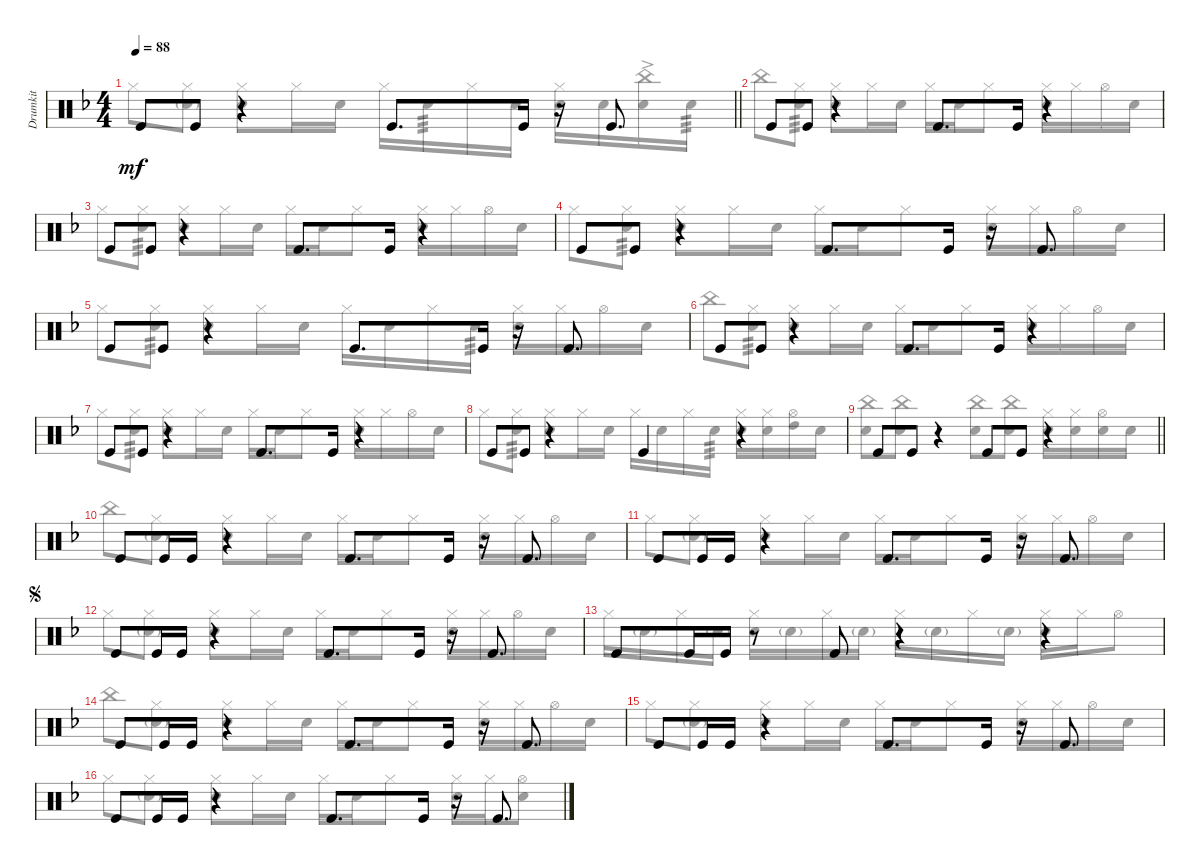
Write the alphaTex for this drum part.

\track ("Drumkit" "Drumkit") {instrument percussion}
\staff {score}
\articulation defaults
\voice
\ts (4 4)
\tempo 88
\clef neutral
\barLineRight lightlight
\ks dminor "Kick (hit)".8{dy mf} "Kick (hit)".8
r.4 "Kick (hit)".8{d} "Kick (hit)".16 r.16 "Kick (hit)".8{d} |
\section ("" "")
"Kick (hit)".8 "Kick (hit)".8 r.4 "Kick (hit)".8{d} "Kick (hit)".16 r.4 |
"Kick (hit)".8 "Kick (hit)".8 r.4 "Kick (hit)".8{d} "Kick (hit)".16 r.4 |
"Kick (hit)".8 "Kick (hit)".8 r.4 "Kick (hit)".8{d} "Kick (hit)".16 r.16 "Kick (hit)".8{d} |
"Kick (hit)".8 "Kick (hit)".8 r.4 "Kick (hit)".8{d} "Kick (hit)".16 r.16 "Kick (hit)".8{d} |
"Kick (hit)".8 "Kick (hit)".8 r.4 "Kick (hit)".8{d} "Kick (hit)".16 r.4 |
"Kick (hit)".8 "Kick (hit)".8 r.4 "Kick (hit)".8{d} "Kick (hit)".16 r.4 |
"Kick (hit)".8 "Kick (hit)".8 r.4 "Kick (hit)".4 r.4 |
\barLineRight lightlight "Kick (hit)".8 "Kick (hit)".8
r.4 "Kick (hit)".8 "Kick (hit)".8 r.4 |
\section ("" "")
"Kick (hit)".8 "Kick (hit)".16 "Kick (hit)".16 r.4 "Kick (hit)".8{d} "Kick (hit)".16 r.16 "Kick (hit)".8{d} |
"Kick (hit)".8 "Kick (hit)".16 "Kick (hit)".16 r.4 "Kick (hit)".8{d} "Kick (hit)".16 r.16 "Kick (hit)".8{d} |
\jump segno "Kick (hit)".8 "Kick (hit)".16 "Kick (hit)".16
r.4 "Kick (hit)".8{d} "Kick (hit)".16 r.16 "Kick (hit)".8{d} |
"Kick (hit)".8 "Kick (hit)".16 "Kick (hit)".16 r.8 "Kick (hit)".8 r.4 r.4 |
"Kick (hit)".8 "Kick (hit)".16 "Kick (hit)".16 r.4 "Kick (hit)".8{d} "Kick (hit)".16 r.16 "Kick (hit)".8{d} |
"Kick (hit)".8 "Kick (hit)".16 "Kick (hit)".16 r.4 "Kick (hit)".8{d} "Kick (hit)".16 r.16 "Kick (hit)".8{d} |
"Kick (hit)".8 "Kick (hit)".16 "Kick (hit)".16 r.4 "Kick (hit)".8{d} "Kick (hit)".16 r.16 "Kick (hit)".8{d}
\voice
\clef neutral
\ottava regular
\simile none
\barLineRight lightlight
\ks dminor "Hi-Hat (closed)".8{dy mf}
("Snare (hit) 2"{g} "Hi-Hat (closed)").8 ("Snare (hit) 2" "Hi-Hat (closed)").8 "Hi-Hat (closed)".16 "Snare (hit) 2".16 "Hi-Hat (closed)".16 "Snare (hit) 2".16{tp 3} "Hi-Hat (closed)".16 "Snare (hit) 2".16 ("Snare (hit) 2" "Hi-Hat (closed)").16 "Snare (hit) 2".16 ("Snare (hit) 2" "China (hit)"{ac}).16 "Snare (hit) 2".16{tp 3} |
"China (hit)".8 ("Hi-Hat (closed)" "Snare (hit) 2").8{tp 3} ("Snare (hit) 2" "Hi-Hat (closed)").8 "Hi-Hat (closed)".16 "Snare (hit) 2".16 "Hi-Hat (closed)".16 "Snare (hit) 2".16 "Hi-Hat (closed)".8 ("Hi-Hat (closed)" "Snare (hit) 2").16 "Hi-Hat (closed)".16 "Hi-Hat (open)".16 "Snare (hit) 2".16 |
"Hi-Hat (closed)".8 ("Hi-Hat (closed)" "Snare (hit) 2").8{tp 3} ("Snare (hit) 2" "Hi-Hat (closed)").8 "Hi-Hat (closed)".16 "Snare (hit) 2".16 "Hi-Hat (closed)".16 "Snare (hit) 2".16 "Hi-Hat (closed)".8 ("Hi-Hat (closed)" "Snare (hit) 2").16 "Hi-Hat (closed)".16 "Hi-Hat (open)".16 "Snare (hit) 2".16 |
"Hi-Hat (closed)".8 ("Hi-Hat (closed)" "Snare (hit) 2").8{tp 3} ("Snare (hit) 2" "Hi-Hat (closed)").8 "Hi-Hat (closed)".16 "Snare (hit) 2".16 "Hi-Hat (closed)".16 "Snare (hit) 2".16 "Hi-Hat (closed)".8 ("Hi-Hat (closed)" "Snare (hit) 2").16 "Hi-Hat (closed)".16 "Hi-Hat (open)".16 "Snare (hit) 2".16 |
"Hi-Hat (closed)".8 ("Hi-Hat (closed)" "Snare (hit) 2").8{tp 3} ("Snare (hit) 2" "Hi-Hat (closed)").8 "Hi-Hat (closed)".16 "Snare (hit) 2".16 "Hi-Hat (closed)".16 "Snare (hit) 2".16 "Hi-Hat (closed)".16 "Snare (hit) 2".16{tp 3} ("Hi-Hat (closed)" "Snare (hit) 2").16 "Hi-Hat (closed)".16 "Hi-Hat (open)".16 "Snare (hit) 2".16 |
"China (hit)".8 ("Hi-Hat (closed)" "Snare (hit) 2").8{tp 3} ("Snare (hit) 2" "Hi-Hat (closed)").8 "Hi-Hat (closed)".16 "Snare (hit) 2".16 "Hi-Hat (closed)".16 "Snare (hit) 2".16 "Hi-Hat (closed)".8 ("Hi-Hat (closed)" "Snare (hit) 2").16 "Hi-Hat (closed)".16 "Hi-Hat (open)".16 "Snare (hit) 2".16 |
"Hi-Hat (closed)".8 ("Hi-Hat (closed)" "Snare (hit) 2").8{tp 3} ("Snare (hit) 2" "Hi-Hat (closed)").8 "Hi-Hat (closed)".16 "Snare (hit) 2".16 "Hi-Hat (closed)".16 "Snare (hit) 2".16 "Hi-Hat (closed)".8 ("Hi-Hat (closed)" "Snare (hit) 2").16 "Hi-Hat (closed)".16 "Hi-Hat (open)".16 "Snare (hit) 2".16 |
"Hi-Hat (closed)".8 ("Hi-Hat (closed)" "Snare (hit) 2").8{tp 3} ("Snare (hit) 2" "Hi-Hat (closed)").8 "Hi-Hat (closed)".16 "Snare (hit) 2".16 "Hi-Hat (closed)".16 "Snare (hit) 2".16 "Hi-Hat (closed)".16 "Snare (hit) 2".16{tp 3} ("Snare (hit) 2" "Hi-Hat (closed)").16 ("Snare (hit) 2" "Hi-Hat (closed)").16 ("High Tom (hit)" "Hi-Hat (open)").16 "Snare (hit) 2".16 |
\barLineRight lightlight
("China (hit)" "Snare (hit) 2").8 ("China (hit)" "Snare (hit) 2").8 r.4 ("China (hit)" "Snare (hit) 2").8 ("China (hit)" "Snare (hit) 2").8 ("Snare (hit) 2" "Hi-Hat (closed)").16 ("Snare (hit) 2" "Hi-Hat (closed)").16 ("Snare (hit) 2" "Hi-Hat (open)").16 "Snare (hit) 2".16 |
"China (hit)".8 ("Hi-Hat (closed)" "Snare (hit) 2"{g}).8 ("Hi-Hat (closed)" "Snare (hit) 2").8 "Hi-Hat (closed)".16 "Snare (hit) 2".16 "Hi-Hat (closed)".16 "Snare (hit) 2".16 "Hi-Hat (closed)".8 ("Hi-Hat (closed)" "Snare (hit) 2").16 "Hi-Hat (closed)".16 "Hi-Hat (open)".16 "Snare (hit) 2".16 |
"Hi-Hat (closed)".8 ("Hi-Hat (closed)" "Snare (hit) 2"{g}).8 ("Hi-Hat (closed)" "Snare (hit) 2").8 "Hi-Hat (closed)".16 "Snare (hit) 2".16 "Hi-Hat (closed)".16 "Snare (hit) 2".16 "Hi-Hat (closed)".8 ("Hi-Hat (closed)" "Snare (hit) 2").16 "Hi-Hat (closed)".16 "Hi-Hat (open)".16 "Snare (hit) 2".16 |
"Hi-Hat (closed)".8 ("Hi-Hat (closed)" "Snare (hit) 2"{g}).8 ("Hi-Hat (closed)" "Snare (hit) 2").8 "Hi-Hat (closed)".16 "Snare (hit) 2".16 "Hi-Hat (closed)".16 "Snare (hit) 2".16 "Hi-Hat (closed)".8 ("Hi-Hat (closed)" "Snare (hit) 2").16 "Hi-Hat (closed)".16 "Hi-Hat (open)".16 "Snare (hit) 2".16 |
"Hi-Hat (closed)".16 "Snare (hit) 2"{g}.16 "Hi-Hat (closed)".16 "Snare (hit) 2"{g}.16 ("Snare (hit) 2" "Hi-Hat (closed)").16 "Snare (hit) 2"{g}.16 "Hi-Hat (closed)".16 "Snare (hit) 2"{g}.16 "Hi-Hat (closed)".16 "Snare (hit) 2"{g}.16 "Hi-Hat (closed)".16 "Snare (hit) 2"{g}.16 ("Snare (hit) 2" "Hi-Hat (closed)").16 "Hi-Hat (closed)".16 "Hi-Hat (open)".8 |
"China (hit)".8 ("Hi-Hat (closed)" "Snare (hit) 2"{g}).8 ("Hi-Hat (closed)" "Snare (hit) 2").8 "Hi-Hat (closed)".16 "Snare (hit) 2".16 "Hi-Hat (closed)".16 "Snare (hit) 2".16 "Hi-Hat (closed)".8 ("Hi-Hat (closed)" "Snare (hit) 2").16 "Hi-Hat (closed)".16 "Hi-Hat (open)".16 "Snare (hit) 2".16 |
"Hi-Hat (closed)".8 ("Hi-Hat (closed)" "Snare (hit) 2"{g}).8 ("Hi-Hat (closed)" "Snare (hit) 2").8 "Hi-Hat (closed)".16 "Snare (hit) 2".16 "Hi-Hat (closed)".16 "Snare (hit) 2".16 "Hi-Hat (closed)".8 ("Hi-Hat (closed)" "Snare (hit) 2").16 "Hi-Hat (closed)".16 "Hi-Hat (open)".16 "Snare (hit) 2".16 |
"Hi-Hat (closed)".8 ("Hi-Hat (closed)" "Snare (hit) 2"{g}).8 ("Hi-Hat (closed)" "Snare (hit) 2").8 "Hi-Hat (closed)".16 "Snare (hit) 2".16 "Hi-Hat (closed)".16 "Snare (hit) 2".16 "Hi-Hat (closed)".8 ("Hi-Hat (closed)" "Snare (hit) 2").16 "Hi-Hat (closed)".16 ("Hi-Hat (open)" "Snare (hit) 2").8
